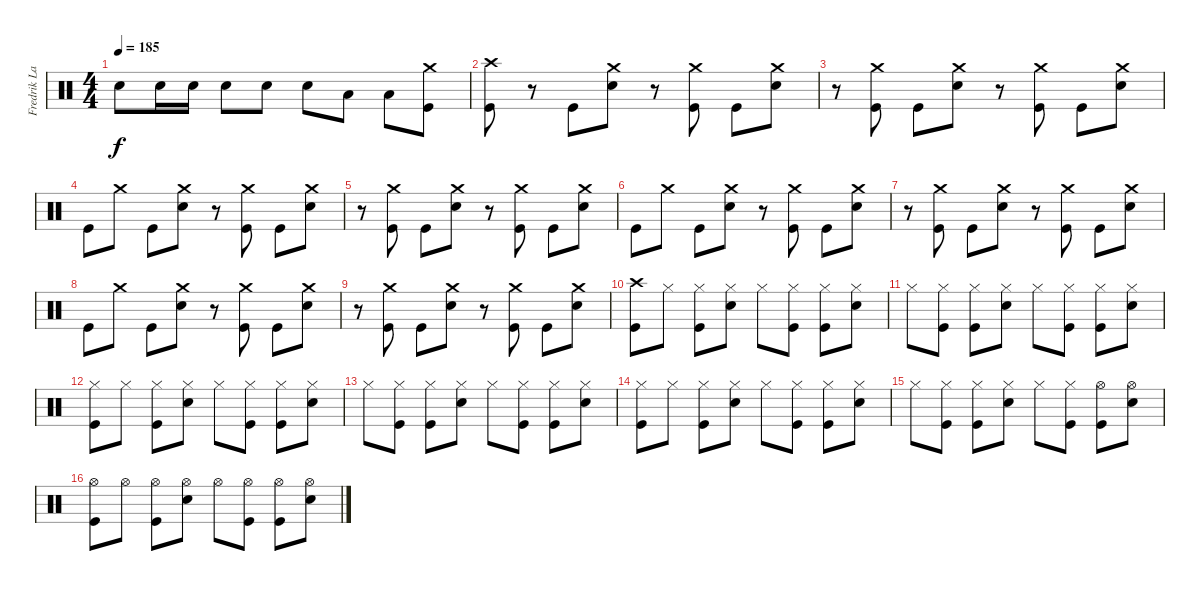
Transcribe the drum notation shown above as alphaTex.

\track ("Fredrik Larzon" "Fredrik La") {instrument percussion}
\staff {score}
\articulation defaults
\ts (4 4)
\tempo 185
\clef neutral
\ks c "Electric Snare (hit)".8{dy f} "Electric Snare (hit)".16 "Electric Snare (hit)".16 "Electric Snare (hit)".8 "Electric Snare (hit)".8 "Electric Snare (hit)".8 "Low Tom (hit)".8 "Low Tom (hit)".8
("Crash medium (hit)" "Kick (hit)").8 |
("Crash high (hit)" "Kick (hit)").8 r.8 "Kick (hit)".8 ("Crash medium (hit)" "Electric Snare (hit)").8 r.8 ("Crash medium (hit)" "Kick (hit)").8 "Kick (hit)".8 ("Crash medium (hit)" "Electric Snare (hit)").8 |
r.8 ("Crash medium (hit)" "Kick (hit)").8 "Kick (hit)".8 ("Crash medium (hit)" "Electric Snare (hit)").8 r.8 ("Crash medium (hit)" "Kick (hit)").8 "Kick (hit)".8 ("Crash medium (hit)" "Electric Snare (hit)").8 |
"Kick (hit)".8 "Crash medium (hit)".8 "Kick (hit)".8 ("Crash medium (hit)" "Electric Snare (hit)").8 r.8 ("Crash medium (hit)" "Kick (hit)").8 "Kick (hit)".8 ("Crash medium (hit)" "Electric Snare (hit)").8 |
r.8 ("Crash medium (hit)" "Kick (hit)").8 "Kick (hit)".8 ("Crash medium (hit)" "Electric Snare (hit)").8 r.8 ("Crash medium (hit)" "Kick (hit)").8 "Kick (hit)".8 ("Crash medium (hit)" "Electric Snare (hit)").8 |
"Kick (hit)".8 "Crash medium (hit)".8 "Kick (hit)".8 ("Crash medium (hit)" "Electric Snare (hit)").8 r.8 ("Crash medium (hit)" "Kick (hit)").8 "Kick (hit)".8 ("Crash medium (hit)" "Electric Snare (hit)").8 |
r.8 ("Crash medium (hit)" "Kick (hit)").8 "Kick (hit)".8 ("Crash medium (hit)" "Electric Snare (hit)").8 r.8 ("Crash medium (hit)" "Kick (hit)").8 "Kick (hit)".8 ("Crash medium (hit)" "Electric Snare (hit)").8 |
"Kick (hit)".8 "Crash medium (hit)".8 "Kick (hit)".8 ("Crash medium (hit)" "Electric Snare (hit)").8 r.8 ("Crash medium (hit)" "Kick (hit)").8 "Kick (hit)".8 ("Crash medium (hit)" "Electric Snare (hit)").8 |
r.8 ("Crash medium (hit)" "Kick (hit)").8 "Kick (hit)".8 ("Crash medium (hit)" "Electric Snare (hit)").8 r.8 ("Crash medium (hit)" "Kick (hit)").8 "Kick (hit)".8 ("Crash medium (hit)" "Electric Snare (hit)").8 |
("Crash high (hit)" "Kick (hit)").8 "Hi-Hat (closed)".8 ("Hi-Hat (closed)" "Kick (hit)").8 ("Hi-Hat (closed)" "Electric Snare (hit)").8 "Hi-Hat (closed)".8 ("Hi-Hat (closed)" "Kick (hit)").8 ("Hi-Hat (closed)" "Kick (hit)").8 ("Hi-Hat (closed)" "Electric Snare (hit)").8 |
"Hi-Hat (closed)".8 ("Hi-Hat (closed)" "Kick (hit)").8 ("Hi-Hat (closed)" "Kick (hit)").8 ("Hi-Hat (closed)" "Electric Snare (hit)").8 "Hi-Hat (closed)".8 ("Hi-Hat (closed)" "Kick (hit)").8 ("Hi-Hat (closed)" "Kick (hit)").8 ("Hi-Hat (closed)" "Electric Snare (hit)").8 |
("Hi-Hat (closed)" "Kick (hit)").8 "Hi-Hat (closed)".8 ("Hi-Hat (closed)" "Kick (hit)").8 ("Hi-Hat (closed)" "Electric Snare (hit)").8 "Hi-Hat (closed)".8 ("Hi-Hat (closed)" "Kick (hit)").8 ("Hi-Hat (closed)" "Kick (hit)").8 ("Hi-Hat (closed)" "Electric Snare (hit)").8 |
"Hi-Hat (closed)".8 ("Hi-Hat (closed)" "Kick (hit)").8 ("Hi-Hat (closed)" "Kick (hit)").8 ("Hi-Hat (closed)" "Electric Snare (hit)").8 "Hi-Hat (closed)".8 ("Hi-Hat (closed)" "Kick (hit)").8 ("Hi-Hat (closed)" "Kick (hit)").8 ("Hi-Hat (closed)" "Electric Snare (hit)").8 |
("Hi-Hat (closed)" "Kick (hit)").8 "Hi-Hat (closed)".8 ("Hi-Hat (closed)" "Kick (hit)").8 ("Hi-Hat (closed)" "Electric Snare (hit)").8 "Hi-Hat (closed)".8 ("Hi-Hat (closed)" "Kick (hit)").8 ("Hi-Hat (closed)" "Kick (hit)").8 ("Hi-Hat (closed)" "Electric Snare (hit)").8 |
"Hi-Hat (closed)".8 ("Hi-Hat (closed)" "Kick (hit)").8 ("Hi-Hat (closed)" "Kick (hit)").8 ("Hi-Hat (closed)" "Electric Snare (hit)").8 "Hi-Hat (closed)".8 ("Hi-Hat (closed)" "Kick (hit)").8 ("Hi-Hat (open)" "Kick (hit)").8 ("Hi-Hat (open)" "Electric Snare (hit)").8 |
("Hi-Hat (open)" "Kick (hit)").8 "Hi-Hat (open)".8 ("Hi-Hat (open)" "Kick (hit)").8 ("Hi-Hat (open)" "Electric Snare (hit)").8 "Hi-Hat (open)".8 ("Hi-Hat (open)" "Kick (hit)").8 ("Hi-Hat (open)" "Kick (hit)").8 ("Hi-Hat (open)" "Electric Snare (hit)").8
